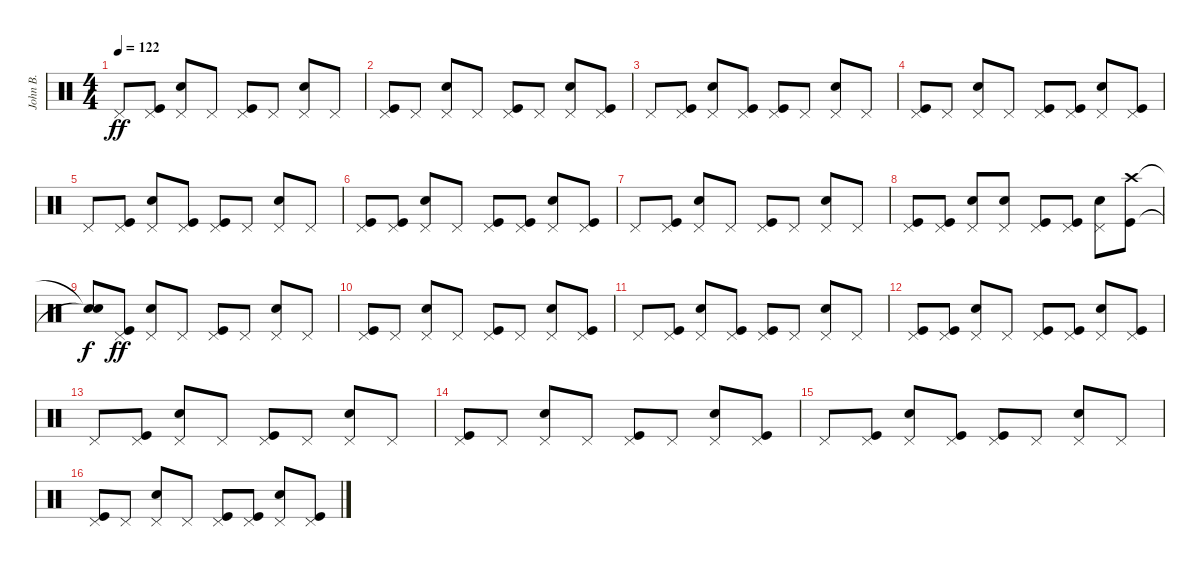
\track ("John B." "John B.") {instrument percussion}
\staff {score}
\articulation defaults
\ts (4 4)
\tempo 122
\clef neutral
\ks c "Pedal Hi-Hat (hit)".8{dy ff}
("Kick (hit)" "Pedal Hi-Hat (hit)").8 ("Snare (hit) 2" "Pedal Hi-Hat (hit)").8 "Pedal Hi-Hat (hit)".8 ("Kick (hit)" "Pedal Hi-Hat (hit)").8 "Pedal Hi-Hat (hit)".8 ("Snare (hit) 2" "Pedal Hi-Hat (hit)").8 "Pedal Hi-Hat (hit)".8 |
("Kick (hit)" "Pedal Hi-Hat (hit)").8 "Pedal Hi-Hat (hit)".8 ("Snare (hit) 2" "Pedal Hi-Hat (hit)").8 "Pedal Hi-Hat (hit)".8 ("Kick (hit)" "Pedal Hi-Hat (hit)").8 "Pedal Hi-Hat (hit)".8 ("Snare (hit) 2" "Pedal Hi-Hat (hit)").8 ("Kick (hit)" "Pedal Hi-Hat (hit)").8 |
"Pedal Hi-Hat (hit)".8 ("Kick (hit)" "Pedal Hi-Hat (hit)").8 ("Snare (hit) 2" "Pedal Hi-Hat (hit)").8 ("Kick (hit)" "Pedal Hi-Hat (hit)").8 ("Kick (hit)" "Pedal Hi-Hat (hit)").8 "Pedal Hi-Hat (hit)".8 ("Snare (hit) 2" "Pedal Hi-Hat (hit)").8 "Pedal Hi-Hat (hit)".8 |
("Kick (hit)" "Pedal Hi-Hat (hit)").8 "Pedal Hi-Hat (hit)".8 ("Snare (hit) 2" "Pedal Hi-Hat (hit)").8 "Pedal Hi-Hat (hit)".8 ("Kick (hit)" "Pedal Hi-Hat (hit)").8 ("Kick (hit)" "Pedal Hi-Hat (hit)").8 ("Snare (hit) 2" "Pedal Hi-Hat (hit)").8 ("Kick (hit)" "Pedal Hi-Hat (hit)").8 |
"Pedal Hi-Hat (hit)".8 ("Kick (hit)" "Pedal Hi-Hat (hit)").8 ("Snare (hit) 2" "Pedal Hi-Hat (hit)").8 ("Kick (hit)" "Pedal Hi-Hat (hit)").8 ("Kick (hit)" "Pedal Hi-Hat (hit)").8 "Pedal Hi-Hat (hit)".8 ("Snare (hit) 2" "Pedal Hi-Hat (hit)").8 "Pedal Hi-Hat (hit)".8 |
("Kick (hit)" "Pedal Hi-Hat (hit)").8 ("Kick (hit)" "Pedal Hi-Hat (hit)").8 ("Snare (hit) 2" "Pedal Hi-Hat (hit)").8 "Pedal Hi-Hat (hit)".8 ("Kick (hit)" "Pedal Hi-Hat (hit)").8 ("Kick (hit)" "Pedal Hi-Hat (hit)").8 ("Snare (hit) 2" "Pedal Hi-Hat (hit)").8 ("Kick (hit)" "Pedal Hi-Hat (hit)").8 |
"Pedal Hi-Hat (hit)".8 ("Kick (hit)" "Pedal Hi-Hat (hit)").8 ("Snare (hit) 2" "Pedal Hi-Hat (hit)").8 "Pedal Hi-Hat (hit)".8 ("Kick (hit)" "Pedal Hi-Hat (hit)").8 "Pedal Hi-Hat (hit)".8 ("Snare (hit) 2" "Pedal Hi-Hat (hit)").8 "Pedal Hi-Hat (hit)".8 |
("Kick (hit)" "Pedal Hi-Hat (hit)").8 ("Kick (hit)" "Pedal Hi-Hat (hit)").8 ("Snare (hit) 2" "Pedal Hi-Hat (hit)").8 ("Snare (hit) 2" "Pedal Hi-Hat (hit)").8 ("Kick (hit)" "Pedal Hi-Hat (hit)").8 ("Kick (hit)" "Pedal Hi-Hat (hit)").8 ("Snare (hit) 2" "Pedal Hi-Hat (hit)").8 ("Kick (hit)" "Crash high (hit)").8 |
("Snare (hit)"{t} "Snare (hit)"{t}).8{dy f} ("Kick (hit)" "Pedal Hi-Hat (hit)").8{dy ff} ("Snare (hit) 2" "Pedal Hi-Hat (hit)").8 "Pedal Hi-Hat (hit)".8 ("Kick (hit)" "Pedal Hi-Hat (hit)").8 "Pedal Hi-Hat (hit)".8 ("Snare (hit) 2" "Pedal Hi-Hat (hit)").8 "Pedal Hi-Hat (hit)".8 |
("Kick (hit)" "Pedal Hi-Hat (hit)").8 "Pedal Hi-Hat (hit)".8 ("Snare (hit) 2" "Pedal Hi-Hat (hit)").8 "Pedal Hi-Hat (hit)".8 ("Kick (hit)" "Pedal Hi-Hat (hit)").8 "Pedal Hi-Hat (hit)".8 ("Snare (hit) 2" "Pedal Hi-Hat (hit)").8 ("Kick (hit)" "Pedal Hi-Hat (hit)").8 |
"Pedal Hi-Hat (hit)".8 ("Kick (hit)" "Pedal Hi-Hat (hit)").8 ("Snare (hit) 2" "Pedal Hi-Hat (hit)").8 ("Kick (hit)" "Pedal Hi-Hat (hit)").8 ("Kick (hit)" "Pedal Hi-Hat (hit)").8 "Pedal Hi-Hat (hit)".8 ("Snare (hit) 2" "Pedal Hi-Hat (hit)").8 "Pedal Hi-Hat (hit)".8 |
("Kick (hit)" "Pedal Hi-Hat (hit)").8 ("Kick (hit)" "Pedal Hi-Hat (hit)").8 ("Snare (hit) 2" "Pedal Hi-Hat (hit)").8 "Pedal Hi-Hat (hit)".8 ("Kick (hit)" "Pedal Hi-Hat (hit)").8 ("Kick (hit)" "Pedal Hi-Hat (hit)").8 ("Snare (hit) 2" "Pedal Hi-Hat (hit)").8 ("Kick (hit)" "Pedal Hi-Hat (hit)").8 |
"Pedal Hi-Hat (hit)".8 ("Kick (hit)" "Pedal Hi-Hat (hit)").8 ("Snare (hit) 2" "Pedal Hi-Hat (hit)").8 "Pedal Hi-Hat (hit)".8 ("Kick (hit)" "Pedal Hi-Hat (hit)").8 "Pedal Hi-Hat (hit)".8 ("Snare (hit) 2" "Pedal Hi-Hat (hit)").8 "Pedal Hi-Hat (hit)".8 |
("Kick (hit)" "Pedal Hi-Hat (hit)").8 "Pedal Hi-Hat (hit)".8 ("Snare (hit) 2" "Pedal Hi-Hat (hit)").8 "Pedal Hi-Hat (hit)".8 ("Kick (hit)" "Pedal Hi-Hat (hit)").8 "Pedal Hi-Hat (hit)".8 ("Snare (hit) 2" "Pedal Hi-Hat (hit)").8 ("Kick (hit)" "Pedal Hi-Hat (hit)").8 |
"Pedal Hi-Hat (hit)".8 ("Kick (hit)" "Pedal Hi-Hat (hit)").8 ("Snare (hit) 2" "Pedal Hi-Hat (hit)").8 ("Kick (hit)" "Pedal Hi-Hat (hit)").8 ("Kick (hit)" "Pedal Hi-Hat (hit)").8 "Pedal Hi-Hat (hit)".8 ("Snare (hit) 2" "Pedal Hi-Hat (hit)").8 "Pedal Hi-Hat (hit)".8 |
("Kick (hit)" "Pedal Hi-Hat (hit)").8 "Pedal Hi-Hat (hit)".8 ("Snare (hit) 2" "Pedal Hi-Hat (hit)").8 "Pedal Hi-Hat (hit)".8 ("Kick (hit)" "Pedal Hi-Hat (hit)").8 ("Kick (hit)" "Pedal Hi-Hat (hit)").8 ("Snare (hit) 2" "Pedal Hi-Hat (hit)").8 ("Kick (hit)" "Pedal Hi-Hat (hit)").8
